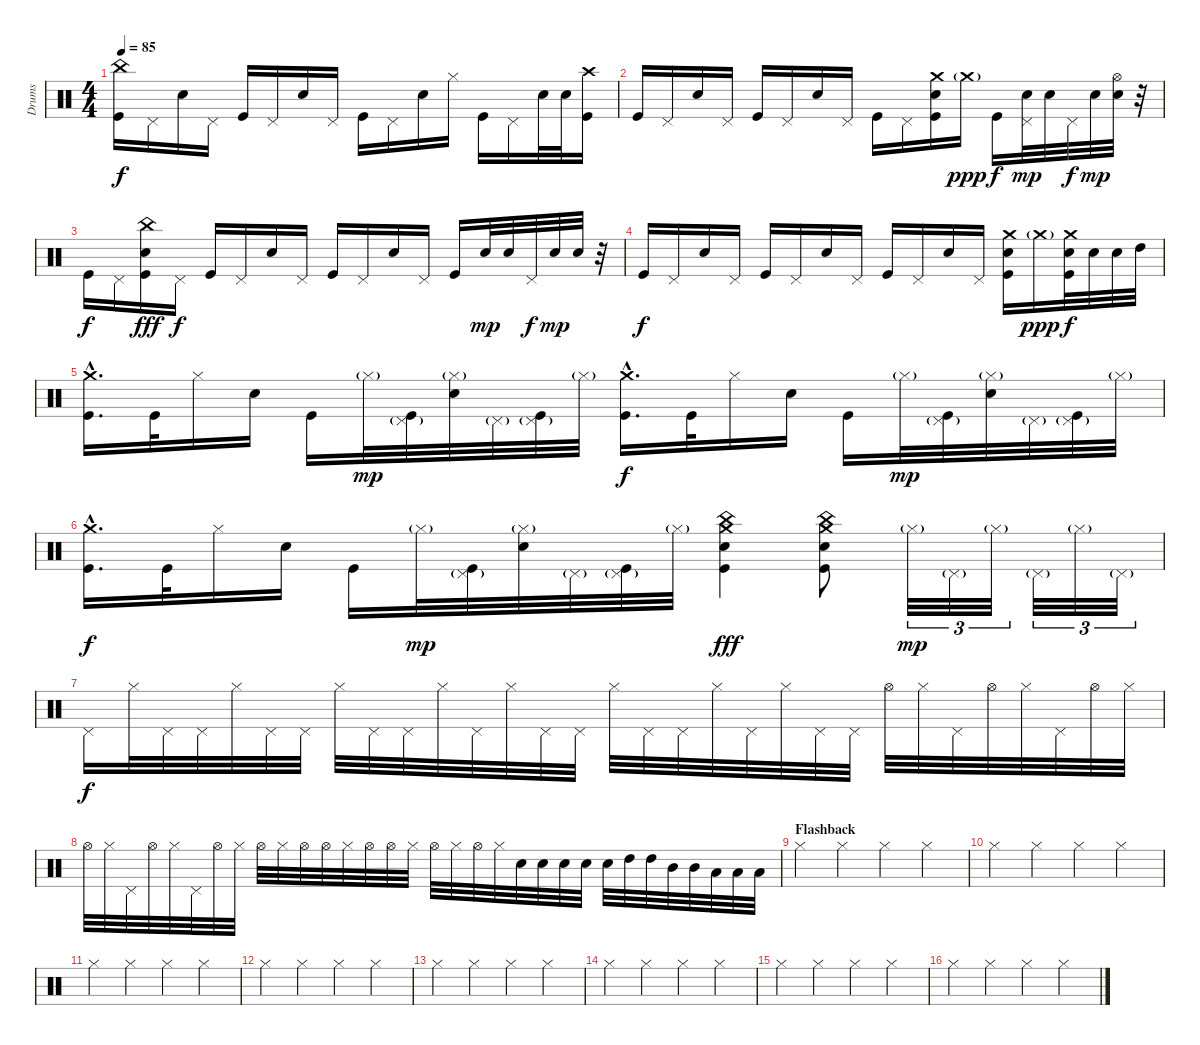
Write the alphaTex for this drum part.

\track ("Drums" "Drums") {instrument percussion}
\staff {score}
\articulation defaults
\ts (4 4)
\tempo 85
\clef neutral
\ks c
("China (hit)" "Kick (hit)").16{dy f} "Pedal Hi-Hat (hit)".16 "Electric Snare (hit)".16 "Pedal Hi-Hat (hit)".16 "Kick (hit)".16 "Pedal Hi-Hat (hit)".16 "Electric Snare (hit)".16 "Pedal Hi-Hat (hit)".16 "Kick (hit)".16 "Pedal Hi-Hat (hit)".16 "Electric Snare (hit)".16 "Hi-Hat (closed)".16 "Kick (hit)".16 "Pedal Hi-Hat (hit)".16 "Electric Snare (hit)".32 "Electric Snare (hit)".32 ("Crash high (hit)" "Kick (hit)").16 |
"Kick (hit)".16 "Pedal Hi-Hat (hit)".16 "Electric Snare (hit)".16 "Pedal Hi-Hat (hit)".16 "Kick (hit)".16 "Pedal Hi-Hat (hit)".16 "Electric Snare (hit)".16 "Pedal Hi-Hat (hit)".16 "Kick (hit)".16 "Pedal Hi-Hat (hit)".16 ("Crash medium (hit)" "Electric Snare (hit)" "Kick (hit)").16 "Crash medium (hit)"{g}.16{dy ppp} "Kick (hit)".16{dy f} ("Pedal Hi-Hat (hit)" "Electric Snare (hit)").32{dy mp} "Electric Snare (hit)".32 "Pedal Hi-Hat (hit)".32{dy f} "Electric Snare (hit)".32{dy mp} ("Hi-Hat (open)" "Electric Snare (hit)").32 r.32 |
"Kick (hit)".16{dy f} "Pedal Hi-Hat (hit)".16 ("China (hit)" "Electric Snare (hit)" "Kick (hit)").16{dy fff} "Pedal Hi-Hat (hit)".16{dy f} "Kick (hit)".16 "Pedal Hi-Hat (hit)".16 "Electric Snare (hit)".16 "Pedal Hi-Hat (hit)".16 "Kick (hit)".16 "Pedal Hi-Hat (hit)".16 "Electric Snare (hit)".16 "Pedal Hi-Hat (hit)".16 "Kick (hit)".16 "Electric Snare (hit)".32{dy mp} "Electric Snare (hit)".32 "Pedal Hi-Hat (hit)".32{dy f} "Electric Snare (hit)".32{dy mp} "Electric Snare (hit)".32 r.32 |
"Kick (hit)".16{dy f} "Pedal Hi-Hat (hit)".16 "Electric Snare (hit)".16 "Pedal Hi-Hat (hit)".16 "Kick (hit)".16 "Pedal Hi-Hat (hit)".16 "Electric Snare (hit)".16 "Pedal Hi-Hat (hit)".16 "Kick (hit)".16 "Pedal Hi-Hat (hit)".16 "Electric Snare (hit)".16 "Pedal Hi-Hat (hit)".16 ("Crash medium (hit)" "Electric Snare (hit)" "Kick (hit)").16 "Crash medium (hit)"{g}.16{dy ppp} ("Crash medium (hit)" "Electric Snare (hit)" "Kick (hit)").32{dy f} "Electric Snare (hit)".32 "Electric Snare (hit)".32 "High Tom (hit)".32 |
("Crash medium (hit)"{hac} "Kick (hit)"{hac}).16{d} "Kick (hit)".32 "Hi-Hat (closed)".16 "Electric Snare (hit)".16 "Kick (hit)".16 "Hi-Hat (closed)"{g}.32{dy mp} ("Pedal Hi-Hat (hit)"{g} "Kick (hit)").32 ("Hi-Hat (closed)"{g} "Electric Snare (hit)").32 "Pedal Hi-Hat (hit)"{g}.32 ("Pedal Hi-Hat (hit)"{g} "Kick (hit)").32 "Hi-Hat (closed)"{g}.32 ("Crash medium (hit)"{hac} "Kick (hit)"{hac}).16{d dy f} "Kick (hit)".32 "Hi-Hat (closed)".16 "Electric Snare (hit)".16 "Kick (hit)".16 "Hi-Hat (closed)"{g}.32{dy mp} ("Pedal Hi-Hat (hit)"{g} "Kick (hit)").32 ("Hi-Hat (closed)"{g} "Electric Snare (hit)").32 "Pedal Hi-Hat (hit)"{g}.32 ("Pedal Hi-Hat (hit)"{g} "Kick (hit)").32 "Hi-Hat (closed)"{g}.32 |
("Crash medium (hit)"{hac} "Kick (hit)"{hac}).16{d dy f} "Kick (hit)".32 "Hi-Hat (closed)".16 "Electric Snare (hit)".16 "Kick (hit)".16 "Hi-Hat (closed)"{g}.32{dy mp} ("Pedal Hi-Hat (hit)"{g} "Kick (hit)").32 ("Hi-Hat (closed)"{g} "Electric Snare (hit)").32 "Pedal Hi-Hat (hit)"{g}.32 ("Pedal Hi-Hat (hit)"{g} "Kick (hit)").32 "Hi-Hat (closed)"{g}.32 ("China (hit)" "Crash medium (hit)" "Electric Snare (hit)" "Kick (hit)").4{dy fff} ("China (hit)" "Crash medium (hit)" "Electric Snare (hit)" "Kick (hit)").8 "Hi-Hat (closed)"{g}.32{tu (3 2) dy mp} "Pedal Hi-Hat (hit)"{g}.32{tu (3 2)} "Hi-Hat (closed)"{g}.32{tu (3 2)} "Pedal Hi-Hat (hit)"{g}.32{tu (3 2)} "Hi-Hat (closed)"{g}.32{tu (3 2)} "Pedal Hi-Hat (hit)"{g}.32{tu (3 2)} |
"Pedal Hi-Hat (hit)".16{dy f} "Hi-Hat (closed)".32 "Pedal Hi-Hat (hit)".32 "Pedal Hi-Hat (hit)".32 "Hi-Hat (closed)".32 "Pedal Hi-Hat (hit)".32 "Pedal Hi-Hat (hit)".32 "Hi-Hat (closed)".32 "Pedal Hi-Hat (hit)".32 "Pedal Hi-Hat (hit)".32 "Hi-Hat (closed)".32 "Pedal Hi-Hat (hit)".32 "Hi-Hat (closed)".32 "Pedal Hi-Hat (hit)".32 "Pedal Hi-Hat (hit)".32 "Hi-Hat (closed)".32 "Pedal Hi-Hat (hit)".32 "Pedal Hi-Hat (hit)".32 "Hi-Hat (closed)".32 "Pedal Hi-Hat (hit)".32 "Hi-Hat (closed)".32 "Pedal Hi-Hat (hit)".32 "Pedal Hi-Hat (hit)".32 "Hi-Hat (open)".32 "Hi-Hat (closed)".32 "Pedal Hi-Hat (hit)".32 "Hi-Hat (open)".32 "Hi-Hat (closed)".32 "Pedal Hi-Hat (hit)".32 "Hi-Hat (open)".32 "Hi-Hat (closed)".32 |
"Hi-Hat (open)".32 "Hi-Hat (closed)".32 "Pedal Hi-Hat (hit)".32 "Hi-Hat (open)".32 "Hi-Hat (closed)".32 "Pedal Hi-Hat (hit)".32 "Hi-Hat (open)".32 "Hi-Hat (closed)".32 "Hi-Hat (open)".32 "Hi-Hat (closed)".32 "Hi-Hat (open)".32 "Hi-Hat (open)".32 "Hi-Hat (closed)".32 "Hi-Hat (open)".32 "Hi-Hat (open)".32 "Hi-Hat (closed)".32 "Hi-Hat (open)".32 "Hi-Hat (closed)".32 "Hi-Hat (open)".32 "Hi-Hat (closed)".32 "Electric Snare (hit)".32 "Electric Snare (hit)".32 "Electric Snare (hit)".32 "Electric Snare (hit)".32 "Electric Snare (hit)".32 "High Tom (hit)".32 "High Tom (hit)".32 "Mid Tom (hit)".32 "Mid Tom (hit)".32 "Low Tom (hit)".32 "Low Tom (hit)".32 "Low Tom (hit)".32 |
\section ("" "Flashback")
"Hi-Hat (closed)".4 "Hi-Hat (closed)".4 "Hi-Hat (closed)".4 "Hi-Hat (closed)".4 |
"Hi-Hat (closed)".4 "Hi-Hat (closed)".4 "Hi-Hat (closed)".4 "Hi-Hat (closed)".4 |
"Hi-Hat (closed)".4 "Hi-Hat (closed)".4 "Hi-Hat (closed)".4 "Hi-Hat (closed)".4 |
"Hi-Hat (closed)".4 "Hi-Hat (closed)".4 "Hi-Hat (closed)".4 "Hi-Hat (closed)".4 |
"Hi-Hat (closed)".4 "Hi-Hat (closed)".4 "Hi-Hat (closed)".4 "Hi-Hat (closed)".4 |
"Hi-Hat (closed)".4 "Hi-Hat (closed)".4 "Hi-Hat (closed)".4 "Hi-Hat (closed)".4 |
"Hi-Hat (closed)".4 "Hi-Hat (closed)".4 "Hi-Hat (closed)".4 "Hi-Hat (closed)".4 |
"Hi-Hat (closed)".4 "Hi-Hat (closed)".4 "Hi-Hat (closed)".4 "Hi-Hat (closed)".4
